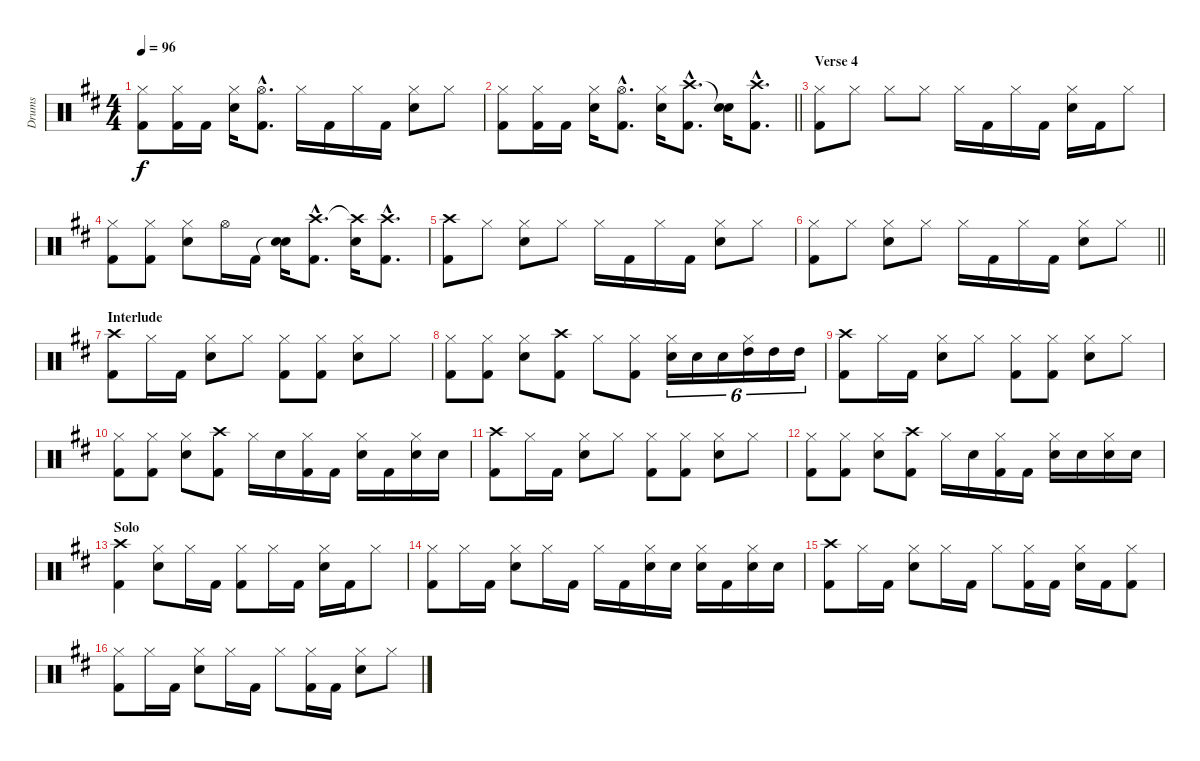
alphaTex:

\track ("Drums" "Drums") {instrument percussion}
\staff {score}
\articulation defaults
\ts (4 4)
\tempo 96
\clef neutral
\ks d
("Hi-Hat (closed)" "Kick (hit) 2").8{dy f} ("Hi-Hat (closed)" "Kick (hit) 2").16 "Kick (hit) 2".16 ("Hi-Hat (closed)" "Electric Snare (hit)").16 ("Hi-Hat (open)"{hac} "Kick (hit) 2"{hac}).8{d} "Hi-Hat (closed)".16 "Kick (hit) 2".16 "Hi-Hat (closed)".16 "Kick (hit) 2".16 ("Hi-Hat (closed)" "Electric Snare (hit)").8 "Hi-Hat (closed)".8 |
\barLineRight lightlight
("Hi-Hat (closed)" "Kick (hit) 2").8 ("Hi-Hat (closed)" "Kick (hit) 2").16 "Kick (hit) 2".16 ("Hi-Hat (closed)" "Electric Snare (hit)").16 ("Hi-Hat (open)"{hac} "Kick (hit) 2"{hac}).8{d} ("Hi-Hat (closed)" "Electric Snare (hit)").16 ("Crash high (hit)"{hac} "Kick (hit) 2"{hac}).8{d} ("Snare (hit)"{t} "Electric Snare (hit)").16 ("Crash high (hit)"{hac} "Kick (hit) 2"{hac}).8{d} |
\section ("" "Verse 4")
("Hi-Hat (closed)" "Kick (hit) 2").8 "Hi-Hat (closed)".8 "Hi-Hat (closed)".8 "Hi-Hat (closed)".8 "Hi-Hat (closed)".16 "Kick (hit) 2".16 "Hi-Hat (closed)".16 "Kick (hit) 2".16 ("Hi-Hat (closed)" "Electric Snare (hit)").16 "Kick (hit) 2".16 "Hi-Hat (closed)".8 |
("Hi-Hat (closed)" "Kick (hit) 2").8 ("Hi-Hat (closed)" "Kick (hit) 2").8 ("Hi-Hat (closed)" "Electric Snare (hit)").8 "Hi-Hat (open)".16 "Kick (hit) 2".16 ("Snare (hit)"{t} "Electric Snare (hit)").16 ("Crash high (hit)"{hac} "Kick (hit) 2"{hac}).8{d} ("Crash high (hit)"{t} "Electric Snare (hit)").16 ("Crash high (hit)"{hac} "Kick (hit) 2"{hac}).8{d} |
("Crash high (hit)" "Kick (hit) 2").8 "Hi-Hat (closed)".8 ("Hi-Hat (closed)" "Electric Snare (hit)").8 "Hi-Hat (closed)".8 "Hi-Hat (closed)".16 "Kick (hit) 2".16 "Hi-Hat (closed)".16 "Kick (hit) 2".16 ("Hi-Hat (closed)" "Electric Snare (hit)").8 "Hi-Hat (closed)".8 |
\barLineRight lightlight
("Hi-Hat (closed)" "Kick (hit) 2").8 "Hi-Hat (closed)".8 ("Hi-Hat (closed)" "Electric Snare (hit)").8 "Hi-Hat (closed)".8 "Hi-Hat (closed)".16 "Kick (hit) 2".16 "Hi-Hat (closed)".16 "Kick (hit) 2".16 ("Hi-Hat (closed)" "Electric Snare (hit)").8 "Hi-Hat (closed)".8 |
\section ("" "Interlude")
("Crash high (hit)" "Kick (hit) 2").8 "Hi-Hat (closed)".16 "Kick (hit) 2".16 ("Hi-Hat (closed)" "Electric Snare (hit)").8 "Hi-Hat (closed)".8 ("Hi-Hat (closed)" "Kick (hit) 2").8 ("Hi-Hat (closed)" "Kick (hit) 2").8 ("Hi-Hat (closed)" "Electric Snare (hit)").8 "Hi-Hat (closed)".8 |
("Hi-Hat (closed)" "Kick (hit) 2").8 ("Hi-Hat (closed)" "Kick (hit) 2").8 ("Hi-Hat (closed)" "Electric Snare (hit)").8 ("Crash high (hit)" "Kick (hit) 2").8 "Hi-Hat (closed)".8 ("Hi-Hat (closed)" "Kick (hit) 2").8 ("Hi-Hat (closed)" "Electric Snare (hit)").16{tu (6 4)} "Electric Snare (hit)".16{tu (6 4)} "Electric Snare (hit)".16{tu (6 4)} ("Hi-Hat (closed)" "High Tom (hit)").16{tu (6 4)} "High Tom (hit)".16{tu (6 4)} "High Tom (hit)".16{tu (6 4)} |
("Crash high (hit)" "Kick (hit) 2").8 "Hi-Hat (closed)".16 "Kick (hit) 2".16 ("Hi-Hat (closed)" "Electric Snare (hit)").8 "Hi-Hat (closed)".8 ("Hi-Hat (closed)" "Kick (hit) 2").8 ("Hi-Hat (closed)" "Kick (hit) 2").8 ("Hi-Hat (closed)" "Electric Snare (hit)").8 "Hi-Hat (closed)".8 |
("Hi-Hat (closed)" "Kick (hit) 2").8 ("Hi-Hat (closed)" "Kick (hit) 2").8 ("Hi-Hat (closed)" "Electric Snare (hit)").8 ("Crash high (hit)" "Kick (hit) 2").8 "Hi-Hat (closed)".16 "Electric Snare (hit)".16 ("Hi-Hat (closed)" "Kick (hit) 2").16 "Kick (hit) 2".16 ("Hi-Hat (closed)" "Electric Snare (hit)").16 "Kick (hit) 2".16 ("Hi-Hat (closed)" "Electric Snare (hit)").16 "Electric Snare (hit)".16 |
("Crash high (hit)" "Kick (hit) 2").8 "Hi-Hat (closed)".16 "Kick (hit) 2".16 ("Hi-Hat (closed)" "Electric Snare (hit)").8 "Hi-Hat (closed)".8 ("Hi-Hat (closed)" "Kick (hit) 2").8 ("Hi-Hat (closed)" "Kick (hit) 2").8 ("Hi-Hat (closed)" "Electric Snare (hit)").8 "Hi-Hat (closed)".8 |
("Hi-Hat (closed)" "Kick (hit) 2").8 ("Hi-Hat (closed)" "Kick (hit) 2").8 ("Hi-Hat (closed)" "Electric Snare (hit)").8 ("Crash high (hit)" "Kick (hit) 2").8 "Hi-Hat (closed)".16 "Electric Snare (hit)".16 ("Hi-Hat (closed)" "Kick (hit) 2").16 "Kick (hit) 2".16 ("Hi-Hat (closed)" "Electric Snare (hit)").16 "Electric Snare (hit)".16 ("Hi-Hat (closed)" "Electric Snare (hit)").16 "Electric Snare (hit)".16 |
\section ("" "Solo")
("Crash high (hit)" "Kick (hit) 2").4 ("Hi-Hat (closed)" "Electric Snare (hit)").8 "Hi-Hat (closed)".16 "Kick (hit) 2".16 ("Hi-Hat (closed)" "Kick (hit) 2").8 "Hi-Hat (closed)".16 "Kick (hit) 2".16 ("Hi-Hat (closed)" "Electric Snare (hit)").16 "Kick (hit) 2".16 "Hi-Hat (closed)".8 |
("Hi-Hat (closed)" "Kick (hit) 2").8 "Hi-Hat (closed)".16 "Kick (hit) 2".16 ("Hi-Hat (closed)" "Electric Snare (hit)").8 "Hi-Hat (closed)".16 "Kick (hit) 2".16 "Hi-Hat (closed)".16 "Kick (hit) 2".16 ("Hi-Hat (closed)" "Electric Snare (hit)").16 "Electric Snare (hit)".16 ("Hi-Hat (closed)" "Electric Snare (hit)").16 "Kick (hit) 2".16 ("Hi-Hat (closed)" "Electric Snare (hit)").16 "Electric Snare (hit)".16 |
("Crash high (hit)" "Kick (hit) 2").8 "Hi-Hat (closed)".16 "Kick (hit) 2".16 ("Hi-Hat (closed)" "Electric Snare (hit)").8 "Hi-Hat (closed)".16 "Kick (hit) 2".16 "Hi-Hat (closed)".8 ("Hi-Hat (closed)" "Kick (hit) 2").16 "Kick (hit) 2".16 ("Hi-Hat (closed)" "Electric Snare (hit)").16 "Kick (hit) 2".16 ("Hi-Hat (closed)" "Kick (hit) 2").8 |
("Hi-Hat (closed)" "Kick (hit) 2").8 "Hi-Hat (closed)".16 "Kick (hit) 2".16 ("Hi-Hat (closed)" "Electric Snare (hit)").8 "Hi-Hat (closed)".16 "Kick (hit) 2".16 "Hi-Hat (closed)".8 ("Hi-Hat (closed)" "Kick (hit) 2").16 "Kick (hit) 2".16 ("Hi-Hat (closed)" "Electric Snare (hit)").8 "Hi-Hat (closed)".8
